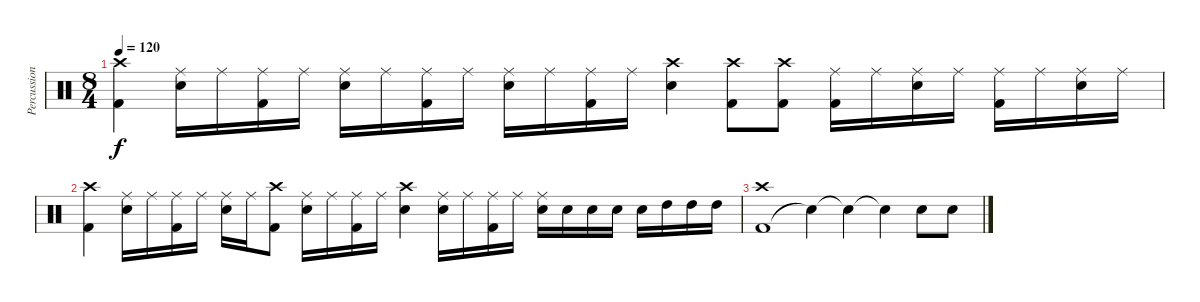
\track ("Percussion" "Percussion") {instrument percussion}
\staff {score}
\articulation defaults
\ts (8 4)
\tempo 120
\clef neutral
\ks c
("Kick (hit) 2" "Crash high (hit)").4{dy f} ("Snare (hit) 2" "Ride (middle)").16 "Ride (middle)".16 ("Kick (hit) 2" "Ride (middle)").16 "Ride (middle)".16 ("Snare (hit) 2" "Ride (middle)").16 "Ride (middle)".16 ("Kick (hit) 2" "Ride (middle)").16 "Ride (middle)".16 ("Snare (hit) 2" "Ride (middle)").16 "Ride (middle)".16 ("Kick (hit) 2" "Ride (middle)").16 "Ride (middle)".16 ("Snare (hit) 2" "Crash high (hit)").4 ("Crash high (hit)" "Kick (hit) 2").8 ("Crash high (hit)" "Kick (hit) 2").8 ("Kick (hit) 2" "Ride (middle)").16 "Ride (middle)".16 ("Snare (hit) 2" "Ride (middle)").16 "Ride (middle)".16 ("Kick (hit) 2" "Ride (middle)").16 "Ride (middle)".16 ("Snare (hit) 2" "Ride (middle)").16 "Ride (middle)".16 |
("Kick (hit) 2" "Crash high (hit)").4 ("Snare (hit) 2" "Ride (middle)").16 "Ride (middle)".16 ("Kick (hit) 2" "Ride (middle)").16 "Ride (middle)".16 ("Snare (hit) 2" "Ride (middle)").16 "Ride (middle)".16 ("Crash high (hit)" "Kick (hit) 2").8 ("Snare (hit) 2" "Ride (middle)").16 "Ride (middle)".16 ("Kick (hit) 2" "Ride (middle)").16 "Ride (middle)".16 ("Snare (hit) 2" "Crash high (hit)").4 ("Snare (hit) 2" "Ride (middle)").16 "Ride (middle)".16 ("Kick (hit) 2" "Ride (middle)").16 "Ride (middle)".16 ("Snare (hit) 2" "Ride (middle)").16 "Snare (hit) 2".16 "Snare (hit) 2".16 "Snare (hit) 2".16 "Snare (hit) 2".16 "High Tom (hit)".16 "High Tom (hit)".16 "High Tom (hit)".16 |
("Kick (hit) 2" "Crash high (hit)").1 "Snare (hit)"{t}.4 "Snare (hit)"{t}.4 "Snare (hit) 2"{t}.4 "Snare (hit) 2".8 "Snare (hit) 2".8
